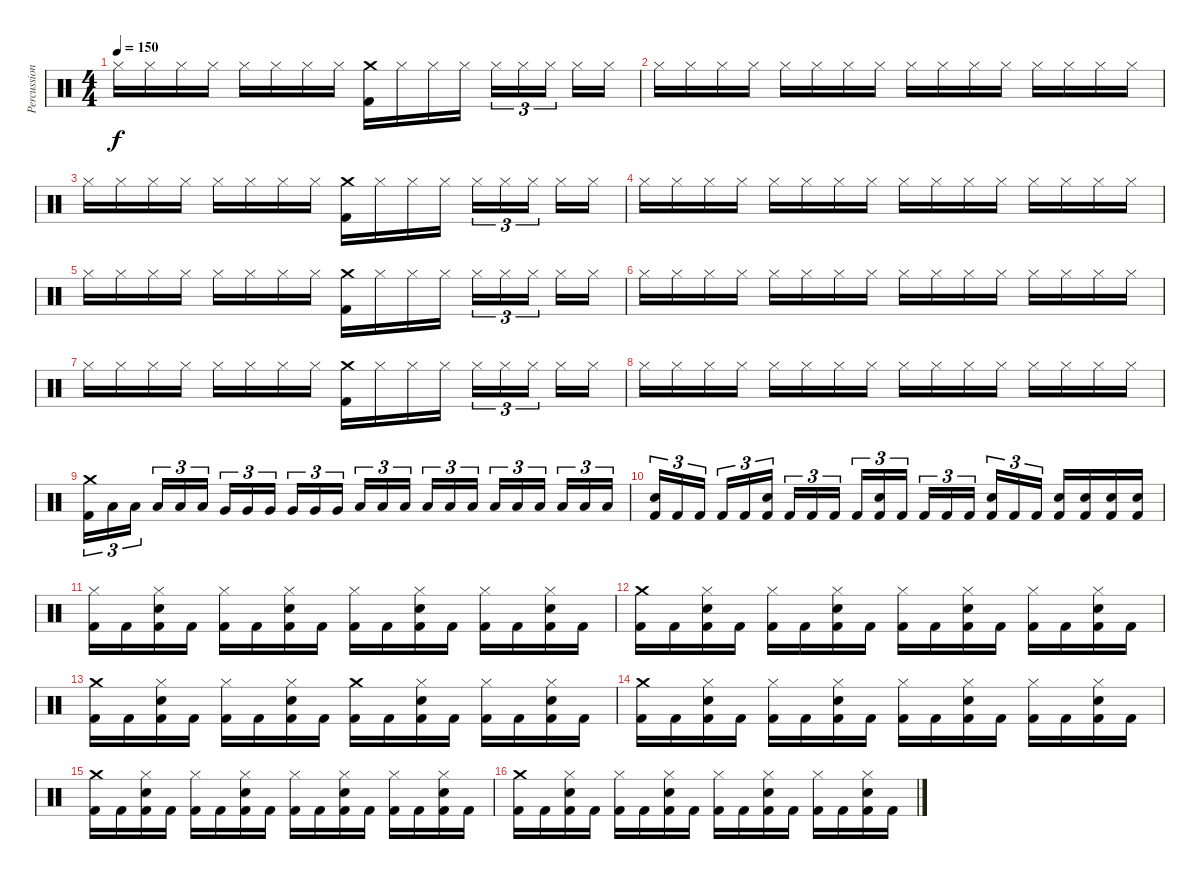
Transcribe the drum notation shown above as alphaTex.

\track ("Percussioni" "Percussion") {instrument percussion}
\staff {score}
\articulation defaults
\ts (4 4)
\tempo 150
\clef neutral
\ks c "Hi-Hat (closed)".16{dy f} "Hi-Hat (closed)".16 "Hi-Hat (closed)".16 "Hi-Hat (closed)".16 "Hi-Hat (closed)".16 "Hi-Hat (closed)".16 "Hi-Hat (closed)".16 "Hi-Hat (closed)".16
("Crash medium (hit)" "Kick (hit) 2").16 "Hi-Hat (closed)".16 "Hi-Hat (closed)".16 "Hi-Hat (closed)".16 "Hi-Hat (closed)".16{tu (3 2)} "Hi-Hat (closed)".16{tu (3 2)} "Hi-Hat (closed)".16{tu (3 2)} "Hi-Hat (closed)".16 "Hi-Hat (closed)".16 |
"Hi-Hat (closed)".16 "Hi-Hat (closed)".16 "Hi-Hat (closed)".16 "Hi-Hat (closed)".16 "Hi-Hat (closed)".16 "Hi-Hat (closed)".16 "Hi-Hat (closed)".16 "Hi-Hat (closed)".16 "Hi-Hat (closed)".16 "Hi-Hat (closed)".16 "Hi-Hat (closed)".16 "Hi-Hat (closed)".16 "Hi-Hat (closed)".16 "Hi-Hat (closed)".16 "Hi-Hat (closed)".16 "Hi-Hat (closed)".16 |
"Hi-Hat (closed)".16 "Hi-Hat (closed)".16 "Hi-Hat (closed)".16 "Hi-Hat (closed)".16 "Hi-Hat (closed)".16 "Hi-Hat (closed)".16 "Hi-Hat (closed)".16 "Hi-Hat (closed)".16 ("Crash medium (hit)" "Kick (hit) 2").16 "Hi-Hat (closed)".16 "Hi-Hat (closed)".16 "Hi-Hat (closed)".16 "Hi-Hat (closed)".16{tu (3 2)} "Hi-Hat (closed)".16{tu (3 2)} "Hi-Hat (closed)".16{tu (3 2)} "Hi-Hat (closed)".16 "Hi-Hat (closed)".16 |
"Hi-Hat (closed)".16 "Hi-Hat (closed)".16 "Hi-Hat (closed)".16 "Hi-Hat (closed)".16 "Hi-Hat (closed)".16 "Hi-Hat (closed)".16 "Hi-Hat (closed)".16 "Hi-Hat (closed)".16 "Hi-Hat (closed)".16 "Hi-Hat (closed)".16 "Hi-Hat (closed)".16 "Hi-Hat (closed)".16 "Hi-Hat (closed)".16 "Hi-Hat (closed)".16 "Hi-Hat (closed)".16 "Hi-Hat (closed)".16 |
"Hi-Hat (closed)".16 "Hi-Hat (closed)".16 "Hi-Hat (closed)".16 "Hi-Hat (closed)".16 "Hi-Hat (closed)".16 "Hi-Hat (closed)".16 "Hi-Hat (closed)".16 "Hi-Hat (closed)".16 ("Crash medium (hit)" "Kick (hit) 2").16 "Hi-Hat (closed)".16 "Hi-Hat (closed)".16 "Hi-Hat (closed)".16 "Hi-Hat (closed)".16{tu (3 2)} "Hi-Hat (closed)".16{tu (3 2)} "Hi-Hat (closed)".16{tu (3 2)} "Hi-Hat (closed)".16 "Hi-Hat (closed)".16 |
"Hi-Hat (closed)".16 "Hi-Hat (closed)".16 "Hi-Hat (closed)".16 "Hi-Hat (closed)".16 "Hi-Hat (closed)".16 "Hi-Hat (closed)".16 "Hi-Hat (closed)".16 "Hi-Hat (closed)".16 "Hi-Hat (closed)".16 "Hi-Hat (closed)".16 "Hi-Hat (closed)".16 "Hi-Hat (closed)".16 "Hi-Hat (closed)".16 "Hi-Hat (closed)".16 "Hi-Hat (closed)".16 "Hi-Hat (closed)".16 |
"Hi-Hat (closed)".16 "Hi-Hat (closed)".16 "Hi-Hat (closed)".16 "Hi-Hat (closed)".16 "Hi-Hat (closed)".16 "Hi-Hat (closed)".16 "Hi-Hat (closed)".16 "Hi-Hat (closed)".16 ("Crash medium (hit)" "Kick (hit) 2").16 "Hi-Hat (closed)".16 "Hi-Hat (closed)".16 "Hi-Hat (closed)".16 "Hi-Hat (closed)".16{tu (3 2)} "Hi-Hat (closed)".16{tu (3 2)} "Hi-Hat (closed)".16{tu (3 2)} "Hi-Hat (closed)".16 "Hi-Hat (closed)".16 |
"Hi-Hat (closed)".16 "Hi-Hat (closed)".16 "Hi-Hat (closed)".16 "Hi-Hat (closed)".16 "Hi-Hat (closed)".16 "Hi-Hat (closed)".16 "Hi-Hat (closed)".16 "Hi-Hat (closed)".16 "Hi-Hat (closed)".16 "Hi-Hat (closed)".16 "Hi-Hat (closed)".16 "Hi-Hat (closed)".16 "Hi-Hat (closed)".16 "Hi-Hat (closed)".16 "Hi-Hat (closed)".16 "Hi-Hat (closed)".16 |
("Crash medium (hit)" "Kick (hit) 2").16{tu (3 2)} "Low Tom (hit)".16{tu (3 2)} "Low Tom (hit)".16{tu (3 2)} "Low Tom (hit)".16{tu (3 2)} "Low Tom (hit)".16{tu (3 2)} "Low Tom (hit)".16{tu (3 2)} "Very Low Tom (hit)".16{tu (3 2)} "Very Low Tom (hit)".16{tu (3 2)} "Very Low Tom (hit)".16{tu (3 2)} "Very Low Tom (hit)".16{tu (3 2)} "Very Low Tom (hit)".16{tu (3 2)} "Very Low Tom (hit)".16{tu (3 2)} "Low Floor Tom (hit)".16{tu (3 2)} "Low Floor Tom (hit)".16{tu (3 2)} "Low Floor Tom (hit)".16{tu (3 2)} "Low Floor Tom (hit)".16{tu (3 2)} "Low Floor Tom (hit)".16{tu (3 2)} "Low Floor Tom (hit)".16{tu (3 2)} "Low Floor Tom (hit)".16{tu (3 2)} "Low Floor Tom (hit)".16{tu (3 2)} "Low Floor Tom (hit)".16{tu (3 2)} "Low Floor Tom (hit)".16{tu (3 2)} "Low Floor Tom (hit)".16{tu (3 2)} "Low Floor Tom (hit)".16{tu (3 2)} |
("Electric Snare (hit)" "Kick (hit) 2").16{tu (3 2)} "Kick (hit) 2".16{tu (3 2)} "Kick (hit) 2".16{tu (3 2)} "Kick (hit) 2".16{tu (3 2)} "Kick (hit) 2".16{tu (3 2)} ("Electric Snare (hit)" "Kick (hit) 2").16{tu (3 2)} "Kick (hit) 2".16{tu (3 2)} "Kick (hit) 2".16{tu (3 2)} "Kick (hit) 2".16{tu (3 2)} "Kick (hit) 2".16{tu (3 2)} ("Electric Snare (hit)" "Kick (hit) 2").16{tu (3 2)} "Kick (hit) 2".16{tu (3 2)} "Kick (hit) 2".16{tu (3 2)} "Kick (hit) 2".16{tu (3 2)} "Kick (hit) 2".16{tu (3 2)} ("Electric Snare (hit)" "Kick (hit) 2").16{tu (3 2)} "Kick (hit) 2".16{tu (3 2)} "Kick (hit) 2".16{tu (3 2)} ("Electric Snare (hit)" "Kick (hit) 2").16 ("Electric Snare (hit)" "Kick (hit) 2").16 ("Electric Snare (hit)" "Kick (hit) 2").16 ("Electric Snare (hit)" "Kick (hit) 2").16 |
("Hi-Hat (closed)" "Kick (hit) 2").16 "Kick (hit) 2".16 ("Hi-Hat (closed)" "Electric Snare (hit)" "Kick (hit) 2").16 "Kick (hit) 2".16 ("Hi-Hat (closed)" "Kick (hit) 2").16 "Kick (hit) 2".16 ("Hi-Hat (closed)" "Electric Snare (hit)" "Kick (hit) 2").16 "Kick (hit) 2".16 ("Hi-Hat (closed)" "Kick (hit) 2").16 "Kick (hit) 2".16 ("Hi-Hat (closed)" "Electric Snare (hit)" "Kick (hit) 2").16 "Kick (hit) 2".16 ("Hi-Hat (closed)" "Kick (hit) 2").16 "Kick (hit) 2".16 ("Hi-Hat (closed)" "Electric Snare (hit)" "Kick (hit) 2").16 "Kick (hit) 2".16 |
("Crash medium (hit)" "Kick (hit) 2").16 "Kick (hit) 2".16 ("Hi-Hat (closed)" "Electric Snare (hit)" "Kick (hit) 2").16 "Kick (hit) 2".16 ("Hi-Hat (closed)" "Kick (hit) 2").16 "Kick (hit) 2".16 ("Hi-Hat (closed)" "Electric Snare (hit)" "Kick (hit) 2").16 "Kick (hit) 2".16 ("Hi-Hat (closed)" "Kick (hit) 2").16 "Kick (hit) 2".16 ("Hi-Hat (closed)" "Electric Snare (hit)" "Kick (hit) 2").16 "Kick (hit) 2".16 ("Hi-Hat (closed)" "Kick (hit) 2").16 "Kick (hit) 2".16 ("Hi-Hat (closed)" "Electric Snare (hit)" "Kick (hit) 2").16 "Kick (hit) 2".16 |
("Crash medium (hit)" "Kick (hit) 2").16 "Kick (hit) 2".16 ("Hi-Hat (closed)" "Electric Snare (hit)" "Kick (hit) 2").16 "Kick (hit) 2".16 ("Hi-Hat (closed)" "Kick (hit) 2").16 "Kick (hit) 2".16 ("Hi-Hat (closed)" "Electric Snare (hit)" "Kick (hit) 2").16 "Kick (hit) 2".16 ("Crash medium (hit)" "Kick (hit) 2").16 "Kick (hit) 2".16 ("Hi-Hat (closed)" "Electric Snare (hit)" "Kick (hit) 2").16 "Kick (hit) 2".16 ("Hi-Hat (closed)" "Kick (hit) 2").16 "Kick (hit) 2".16 ("Hi-Hat (closed)" "Electric Snare (hit)" "Kick (hit) 2").16 "Kick (hit) 2".16 |
("Crash medium (hit)" "Kick (hit) 2").16 "Kick (hit) 2".16 ("Hi-Hat (closed)" "Electric Snare (hit)" "Kick (hit) 2").16 "Kick (hit) 2".16 ("Hi-Hat (closed)" "Kick (hit) 2").16 "Kick (hit) 2".16 ("Hi-Hat (closed)" "Electric Snare (hit)" "Kick (hit) 2").16 "Kick (hit) 2".16 ("Hi-Hat (closed)" "Kick (hit) 2").16 "Kick (hit) 2".16 ("Hi-Hat (closed)" "Electric Snare (hit)" "Kick (hit) 2").16 "Kick (hit) 2".16 ("Hi-Hat (closed)" "Kick (hit) 2").16 "Kick (hit) 2".16 ("Hi-Hat (closed)" "Electric Snare (hit)" "Kick (hit) 2").16 "Kick (hit) 2".16 |
("Crash medium (hit)" "Kick (hit) 2").16 "Kick (hit) 2".16 ("Hi-Hat (closed)" "Electric Snare (hit)" "Kick (hit) 2").16 "Kick (hit) 2".16 ("Hi-Hat (closed)" "Kick (hit) 2").16 "Kick (hit) 2".16 ("Hi-Hat (closed)" "Electric Snare (hit)" "Kick (hit) 2").16 "Kick (hit) 2".16 ("Hi-Hat (closed)" "Kick (hit) 2").16 "Kick (hit) 2".16 ("Hi-Hat (closed)" "Electric Snare (hit)" "Kick (hit) 2").16 "Kick (hit) 2".16 ("Hi-Hat (closed)" "Kick (hit) 2").16 "Kick (hit) 2".16 ("Hi-Hat (closed)" "Electric Snare (hit)" "Kick (hit) 2").16 "Kick (hit) 2".16 |
("Crash medium (hit)" "Kick (hit) 2").16 "Kick (hit) 2".16 ("Hi-Hat (closed)" "Electric Snare (hit)" "Kick (hit) 2").16 "Kick (hit) 2".16 ("Hi-Hat (closed)" "Kick (hit) 2").16 "Kick (hit) 2".16 ("Hi-Hat (closed)" "Electric Snare (hit)" "Kick (hit) 2").16 "Kick (hit) 2".16 ("Hi-Hat (closed)" "Kick (hit) 2").16 "Kick (hit) 2".16 ("Hi-Hat (closed)" "Electric Snare (hit)" "Kick (hit) 2").16 "Kick (hit) 2".16 ("Hi-Hat (closed)" "Kick (hit) 2").16 "Kick (hit) 2".16 ("Hi-Hat (closed)" "Electric Snare (hit)" "Kick (hit) 2").16 "Kick (hit) 2".16
